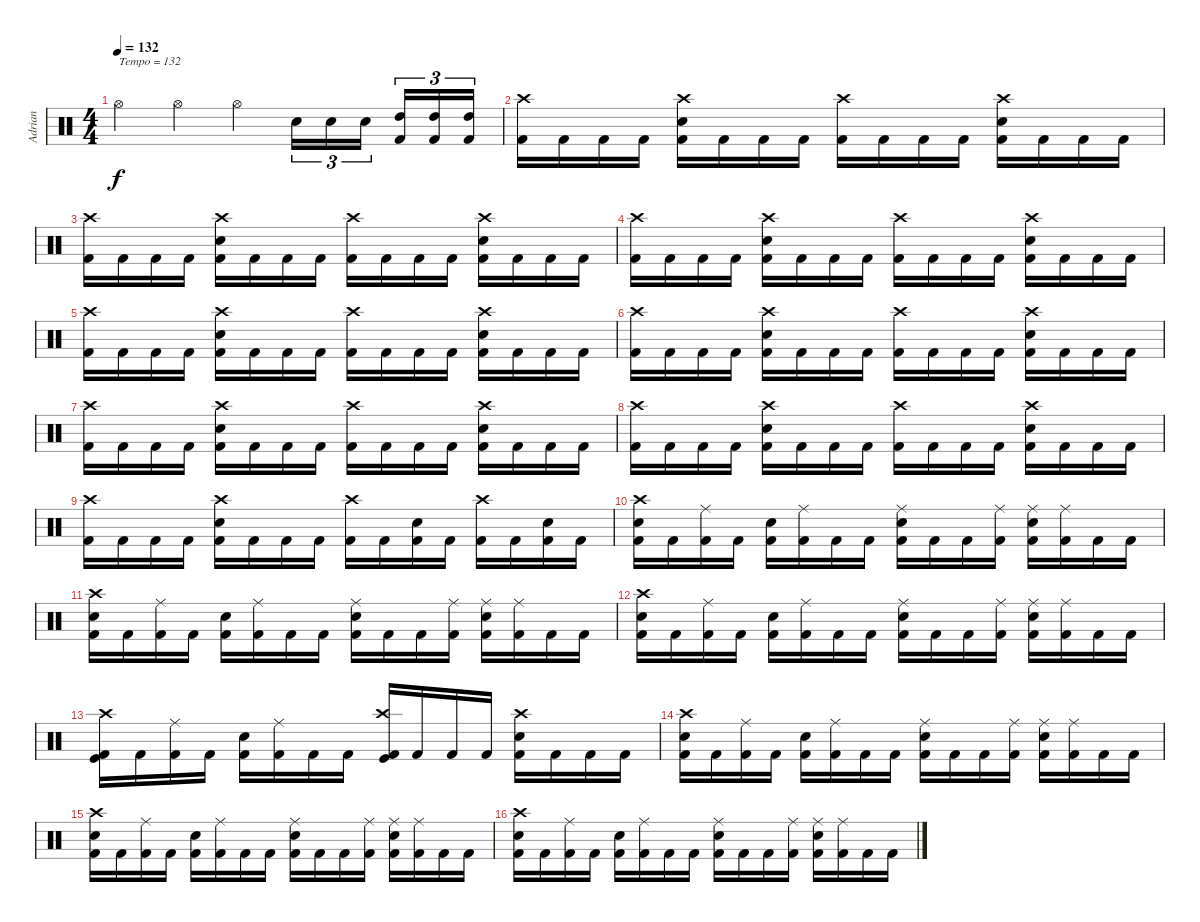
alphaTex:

\track ("Adrian" "Adrian") {instrument percussion}
\staff {score}
\articulation defaults
\ts (4 4)
\tempo 132
\clef neutral
\ks c "Hi-Hat (open)".4{txt "Tempo = 132" dy f} "Hi-Hat (open)".4 "Hi-Hat (open)".4 "Snare (hit) 2".16{tu (3 2)} "Snare (hit) 2".16{tu (3 2)} "Snare (hit) 2".16{tu (3 2)}
("Kick (hit) 2" "High Tom (hit)").16{tu (3 2)} ("Kick (hit) 2" "High Tom (hit)").16{tu (3 2)} ("Kick (hit) 2" "High Tom (hit)").16{tu (3 2)} |
("Kick (hit) 2" "Crash high (hit)").16 "Kick (hit) 2".16 "Kick (hit) 2".16 "Kick (hit) 2".16 ("Kick (hit) 2" "Snare (hit) 2" "Crash high (hit)").16 "Kick (hit) 2".16 "Kick (hit) 2".16 "Kick (hit) 2".16 ("Kick (hit) 2" "Crash high (hit)").16 "Kick (hit) 2".16 "Kick (hit) 2".16 "Kick (hit) 2".16 ("Kick (hit) 2" "Snare (hit) 2" "Crash high (hit)").16 "Kick (hit) 2".16 "Kick (hit) 2".16 "Kick (hit) 2".16 |
("Kick (hit) 2" "Crash high (hit)").16 "Kick (hit) 2".16 "Kick (hit) 2".16 "Kick (hit) 2".16 ("Kick (hit) 2" "Snare (hit) 2" "Crash high (hit)").16 "Kick (hit) 2".16 "Kick (hit) 2".16 "Kick (hit) 2".16 ("Kick (hit) 2" "Crash high (hit)").16 "Kick (hit) 2".16 "Kick (hit) 2".16 "Kick (hit) 2".16 ("Kick (hit) 2" "Snare (hit) 2" "Crash high (hit)").16 "Kick (hit) 2".16 "Kick (hit) 2".16 "Kick (hit) 2".16 |
("Kick (hit) 2" "Crash high (hit)").16 "Kick (hit) 2".16 "Kick (hit) 2".16 "Kick (hit) 2".16 ("Kick (hit) 2" "Snare (hit) 2" "Crash high (hit)").16 "Kick (hit) 2".16 "Kick (hit) 2".16 "Kick (hit) 2".16 ("Kick (hit) 2" "Crash high (hit)").16 "Kick (hit) 2".16 "Kick (hit) 2".16 "Kick (hit) 2".16 ("Kick (hit) 2" "Snare (hit) 2" "Crash high (hit)").16 "Kick (hit) 2".16 "Kick (hit) 2".16 "Kick (hit) 2".16 |
("Kick (hit) 2" "Crash high (hit)").16 "Kick (hit) 2".16 "Kick (hit) 2".16 "Kick (hit) 2".16 ("Kick (hit) 2" "Snare (hit) 2" "Crash high (hit)").16 "Kick (hit) 2".16 "Kick (hit) 2".16 "Kick (hit) 2".16 ("Kick (hit) 2" "Crash high (hit)").16 "Kick (hit) 2".16 "Kick (hit) 2".16 "Kick (hit) 2".16 ("Kick (hit) 2" "Snare (hit) 2" "Crash high (hit)").16 "Kick (hit) 2".16 "Kick (hit) 2".16 "Kick (hit) 2".16 |
("Kick (hit) 2" "Crash high (hit)").16 "Kick (hit) 2".16 "Kick (hit) 2".16 "Kick (hit) 2".16 ("Kick (hit) 2" "Snare (hit) 2" "Crash high (hit)").16 "Kick (hit) 2".16 "Kick (hit) 2".16 "Kick (hit) 2".16 ("Kick (hit) 2" "Crash high (hit)").16 "Kick (hit) 2".16 "Kick (hit) 2".16 "Kick (hit) 2".16 ("Kick (hit) 2" "Snare (hit) 2" "Crash high (hit)").16 "Kick (hit) 2".16 "Kick (hit) 2".16 "Kick (hit) 2".16 |
("Kick (hit) 2" "Crash high (hit)").16 "Kick (hit) 2".16 "Kick (hit) 2".16 "Kick (hit) 2".16 ("Kick (hit) 2" "Snare (hit) 2" "Crash high (hit)").16 "Kick (hit) 2".16 "Kick (hit) 2".16 "Kick (hit) 2".16 ("Kick (hit) 2" "Crash high (hit)").16 "Kick (hit) 2".16 "Kick (hit) 2".16 "Kick (hit) 2".16 ("Kick (hit) 2" "Snare (hit) 2" "Crash high (hit)").16 "Kick (hit) 2".16 "Kick (hit) 2".16 "Kick (hit) 2".16 |
("Kick (hit) 2" "Crash high (hit)").16 "Kick (hit) 2".16 "Kick (hit) 2".16 "Kick (hit) 2".16 ("Kick (hit) 2" "Snare (hit) 2" "Crash high (hit)").16 "Kick (hit) 2".16 "Kick (hit) 2".16 "Kick (hit) 2".16 ("Kick (hit) 2" "Crash high (hit)").16 "Kick (hit) 2".16 "Kick (hit) 2".16 "Kick (hit) 2".16 ("Kick (hit) 2" "Snare (hit) 2" "Crash high (hit)").16 "Kick (hit) 2".16 "Kick (hit) 2".16 "Kick (hit) 2".16 |
("Kick (hit) 2" "Crash high (hit)").16 "Kick (hit) 2".16 "Kick (hit) 2".16 "Kick (hit) 2".16 ("Kick (hit) 2" "Snare (hit) 2" "Crash high (hit)").16 "Kick (hit) 2".16 "Kick (hit) 2".16 "Kick (hit) 2".16 ("Kick (hit) 2" "Crash high (hit)").16 "Kick (hit) 2".16 ("Kick (hit) 2" "Snare (hit) 2").16 "Kick (hit) 2".16 ("Kick (hit) 2" "Crash high (hit)").16 "Kick (hit) 2".16 ("Kick (hit) 2" "Snare (hit) 2").16 "Kick (hit) 2".16 |
("Kick (hit) 2" "Snare (hit) 2" "Crash high (hit)").16 "Kick (hit) 2".16 ("Kick (hit) 2" "Ride (middle)").16 "Kick (hit) 2".16 ("Kick (hit) 2" "Snare (hit) 2").16 ("Kick (hit) 2" "Ride (middle)").16 "Kick (hit) 2".16 "Kick (hit) 2".16 ("Kick (hit) 2" "Snare (hit) 2" "Ride (middle)").16 "Kick (hit) 2".16 "Kick (hit) 2".16 ("Kick (hit) 2" "Ride (middle)").16 ("Kick (hit) 2" "Snare (hit) 2" "Ride (middle)").16 ("Kick (hit) 2" "Ride (middle)").16 "Kick (hit) 2".16 "Kick (hit) 2".16 |
("Kick (hit) 2" "Snare (hit) 2" "Crash high (hit)").16 "Kick (hit) 2".16 ("Kick (hit) 2" "Ride (middle)").16 "Kick (hit) 2".16 ("Kick (hit) 2" "Snare (hit) 2").16 ("Kick (hit) 2" "Ride (middle)").16 "Kick (hit) 2".16 "Kick (hit) 2".16 ("Kick (hit) 2" "Snare (hit) 2" "Ride (middle)").16 "Kick (hit) 2".16 "Kick (hit) 2".16 ("Kick (hit) 2" "Ride (middle)").16 ("Kick (hit) 2" "Snare (hit) 2" "Ride (middle)").16 ("Kick (hit) 2" "Ride (middle)").16 "Kick (hit) 2".16 "Kick (hit) 2".16 |
("Kick (hit) 2" "Snare (hit) 2" "Crash high (hit)").16 "Kick (hit) 2".16 ("Kick (hit) 2" "Ride (middle)").16 "Kick (hit) 2".16 ("Kick (hit) 2" "Snare (hit) 2").16 ("Kick (hit) 2" "Ride (middle)").16 "Kick (hit) 2".16 "Kick (hit) 2".16 ("Kick (hit) 2" "Snare (hit) 2" "Ride (middle)").16 "Kick (hit) 2".16 "Kick (hit) 2".16 ("Kick (hit) 2" "Ride (middle)").16 ("Kick (hit) 2" "Snare (hit) 2" "Ride (middle)").16 ("Kick (hit) 2" "Ride (middle)").16 "Kick (hit) 2".16 "Kick (hit) 2".16 |
("Kick (hit) 2" "Kick (hit)" "Crash high (hit)").16 "Kick (hit) 2".16 ("Kick (hit) 2" "Ride (middle)").16 "Kick (hit) 2".16 ("Kick (hit) 2" "Snare (hit) 2").16 ("Kick (hit) 2" "Ride (middle)").16 "Kick (hit) 2".16 "Kick (hit) 2".16 ("Kick (hit) 2" "Kick (hit)" "Crash high (hit)").16 "Kick (hit) 2".16 "Kick (hit) 2".16 "Kick (hit) 2".16 ("Kick (hit) 2" "Snare (hit) 2" "Crash high (hit)").16 "Kick (hit) 2".16 "Kick (hit) 2".16 "Kick (hit) 2".16 |
("Kick (hit) 2" "Snare (hit) 2" "Crash high (hit)").16 "Kick (hit) 2".16 ("Kick (hit) 2" "Ride (middle)").16 "Kick (hit) 2".16 ("Kick (hit) 2" "Snare (hit) 2").16 ("Kick (hit) 2" "Ride (middle)").16 "Kick (hit) 2".16 "Kick (hit) 2".16 ("Kick (hit) 2" "Snare (hit) 2" "Ride (middle)").16 "Kick (hit) 2".16 "Kick (hit) 2".16 ("Kick (hit) 2" "Ride (middle)").16 ("Kick (hit) 2" "Snare (hit) 2" "Ride (middle)").16 ("Kick (hit) 2" "Ride (middle)").16 "Kick (hit) 2".16 "Kick (hit) 2".16 |
("Kick (hit) 2" "Snare (hit) 2" "Crash high (hit)").16 "Kick (hit) 2".16 ("Kick (hit) 2" "Ride (middle)").16 "Kick (hit) 2".16 ("Kick (hit) 2" "Snare (hit) 2").16 ("Kick (hit) 2" "Ride (middle)").16 "Kick (hit) 2".16 "Kick (hit) 2".16 ("Kick (hit) 2" "Snare (hit) 2" "Ride (middle)").16 "Kick (hit) 2".16 "Kick (hit) 2".16 ("Kick (hit) 2" "Ride (middle)").16 ("Kick (hit) 2" "Snare (hit) 2" "Ride (middle)").16 ("Kick (hit) 2" "Ride (middle)").16 "Kick (hit) 2".16 "Kick (hit) 2".16 |
("Kick (hit) 2" "Snare (hit) 2" "Crash high (hit)").16 "Kick (hit) 2".16 ("Kick (hit) 2" "Ride (middle)").16 "Kick (hit) 2".16 ("Kick (hit) 2" "Snare (hit) 2").16 ("Kick (hit) 2" "Ride (middle)").16 "Kick (hit) 2".16 "Kick (hit) 2".16 ("Kick (hit) 2" "Snare (hit) 2" "Ride (middle)").16 "Kick (hit) 2".16 "Kick (hit) 2".16 ("Kick (hit) 2" "Ride (middle)").16 ("Kick (hit) 2" "Snare (hit) 2" "Ride (middle)").16 ("Kick (hit) 2" "Ride (middle)").16 "Kick (hit) 2".16 "Kick (hit) 2".16
